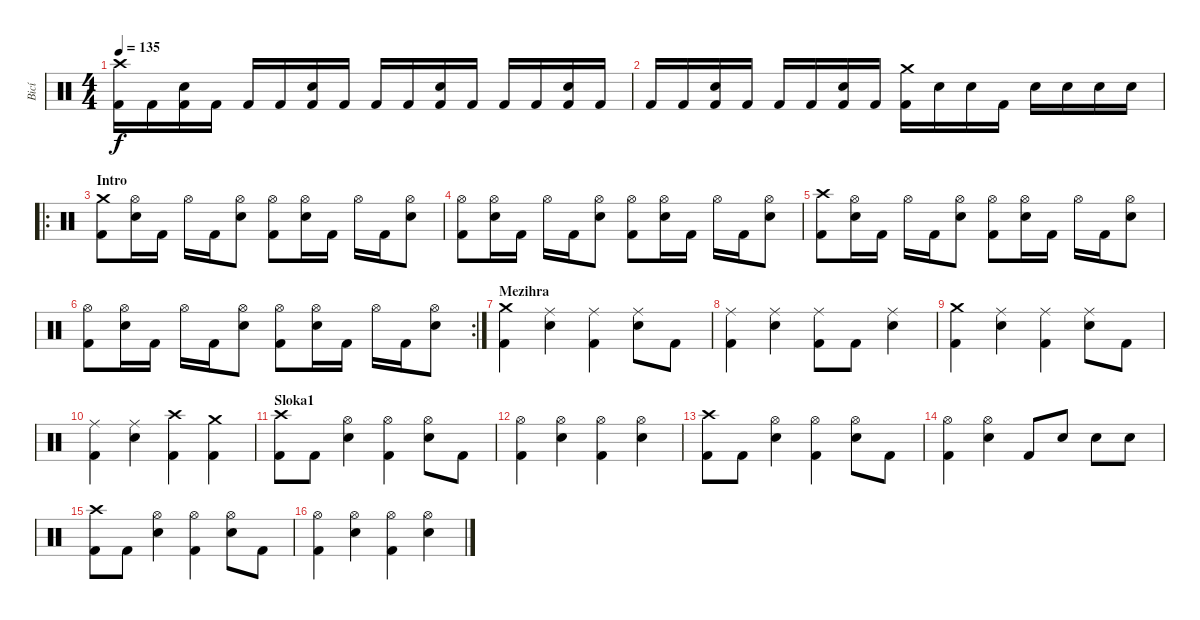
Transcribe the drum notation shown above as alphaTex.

\track ("Bicí" "Bicí") {instrument percussion}
\staff {score}
\articulation defaults
\ts (4 4)
\tempo 135
\clef neutral
\ks c
("Crash high (hit)" "Kick (hit) 2").16{dy f} "Kick (hit) 2".16 ("Snare (hit) 2" "Kick (hit) 2").16 "Kick (hit) 2".16 "Kick (hit) 2".16 "Kick (hit) 2".16 ("Snare (hit) 2" "Kick (hit) 2").16 "Kick (hit) 2".16 "Kick (hit) 2".16 "Kick (hit) 2".16 ("Snare (hit) 2" "Kick (hit) 2").16 "Kick (hit) 2".16 "Kick (hit) 2".16 "Kick (hit) 2".16 ("Snare (hit) 2" "Kick (hit) 2").16 "Kick (hit) 2".16 |
"Kick (hit) 2".16 "Kick (hit) 2".16 ("Snare (hit) 2" "Kick (hit) 2").16 "Kick (hit) 2".16 "Kick (hit) 2".16 "Kick (hit) 2".16 ("Snare (hit) 2" "Kick (hit) 2").16 "Kick (hit) 2".16 ("Crash medium (hit)" "Kick (hit) 2").16 "Snare (hit) 2".16 "Snare (hit) 2".16 "Kick (hit) 2".16 "Snare (hit) 2".16 "Snare (hit) 2".16 "Snare (hit) 2".16 "Snare (hit) 2".16 |
\ro
\section ("" "Intro")
("Crash medium (hit)" "Kick (hit) 2").8 ("Hi-Hat (open)" "Snare (hit) 2").16 "Kick (hit) 2".16 "Hi-Hat (open)".16 "Kick (hit) 2".16 ("Hi-Hat (open)" "Snare (hit) 2").8 ("Hi-Hat (open)" "Kick (hit) 2").8 ("Hi-Hat (open)" "Snare (hit) 2").16 "Kick (hit) 2".16 "Hi-Hat (open)".16 "Kick (hit) 2".16 ("Hi-Hat (open)" "Snare (hit) 2").8 |
("Hi-Hat (open)" "Kick (hit) 2").8 ("Hi-Hat (open)" "Snare (hit) 2").16 "Kick (hit) 2".16 "Hi-Hat (open)".16 "Kick (hit) 2".16 ("Hi-Hat (open)" "Snare (hit) 2").8 ("Hi-Hat (open)" "Kick (hit) 2").8 ("Hi-Hat (open)" "Snare (hit) 2").16 "Kick (hit) 2".16 "Hi-Hat (open)".16 "Kick (hit) 2".16 ("Hi-Hat (open)" "Snare (hit) 2").8 |
("Crash high (hit)" "Kick (hit) 2").8 ("Hi-Hat (open)" "Snare (hit) 2").16 "Kick (hit) 2".16 "Hi-Hat (open)".16 "Kick (hit) 2".16 ("Hi-Hat (open)" "Snare (hit) 2").8 ("Hi-Hat (open)" "Kick (hit) 2").8 ("Hi-Hat (open)" "Snare (hit) 2").16 "Kick (hit) 2".16 "Hi-Hat (open)".16 "Kick (hit) 2".16 ("Hi-Hat (open)" "Snare (hit) 2").8 |
\rc 2
("Hi-Hat (open)" "Kick (hit) 2").8 ("Hi-Hat (open)" "Snare (hit) 2").16 "Kick (hit) 2".16 "Hi-Hat (open)".16 "Kick (hit) 2".16 ("Hi-Hat (open)" "Snare (hit) 2").8 ("Hi-Hat (open)" "Kick (hit) 2").8 ("Hi-Hat (open)" "Snare (hit) 2").16 "Kick (hit) 2".16 "Hi-Hat (open)".16 "Kick (hit) 2".16 ("Hi-Hat (open)" "Snare (hit) 2").8 |
\section ("" "Mezihra")
("Crash medium (hit)" "Kick (hit) 2").4 ("Ride (middle)" "Snare (hit) 2").4 ("Ride (middle)" "Kick (hit) 2").4 ("Ride (middle)" "Snare (hit) 2").8 "Kick (hit) 2".8 |
("Ride (middle)" "Kick (hit) 2").4 ("Ride (middle)" "Snare (hit) 2").4 ("Ride (middle)" "Kick (hit) 2").8 "Kick (hit) 2".8 ("Ride (middle)" "Snare (hit) 2").4 |
("Crash medium (hit)" "Kick (hit) 2").4 ("Ride (middle)" "Snare (hit) 2").4 ("Ride (middle)" "Kick (hit) 2").4 ("Ride (middle)" "Snare (hit) 2").8 "Kick (hit) 2".8 |
("Ride (middle)" "Kick (hit) 2").4 ("Ride (middle)" "Snare (hit) 2").4 ("Crash high (hit)" "Kick (hit) 2").4 ("Crash medium (hit)" "Kick (hit) 2").4 |
\section ("" "Sloka1")
("Crash high (hit)" "Kick (hit) 2").8 "Kick (hit) 2".8 ("Hi-Hat (open)" "Snare (hit) 2").4 ("Hi-Hat (open)" "Kick (hit) 2").4 ("Hi-Hat (open)" "Snare (hit) 2").8 "Kick (hit) 2".8 |
("Hi-Hat (open)" "Kick (hit) 2").4 ("Hi-Hat (open)" "Snare (hit) 2").4 ("Hi-Hat (open)" "Kick (hit) 2").4 ("Hi-Hat (open)" "Snare (hit) 2").4 |
("Crash high (hit)" "Kick (hit) 2").8 "Kick (hit) 2".8 ("Hi-Hat (open)" "Snare (hit) 2").4 ("Hi-Hat (open)" "Kick (hit) 2").4 ("Hi-Hat (open)" "Snare (hit) 2").8 "Kick (hit) 2".8 |
("Hi-Hat (open)" "Kick (hit) 2").4 ("Hi-Hat (open)" "Snare (hit) 2").4 "Kick (hit) 2".8 "Snare (hit) 2".8 "Snare (hit) 2".8 "Snare (hit) 2".8 |
("Crash high (hit)" "Kick (hit) 2").8 "Kick (hit) 2".8 ("Hi-Hat (open)" "Snare (hit) 2").4 ("Hi-Hat (open)" "Kick (hit) 2").4 ("Hi-Hat (open)" "Snare (hit) 2").8 "Kick (hit) 2".8 |
("Hi-Hat (open)" "Kick (hit) 2").4 ("Hi-Hat (open)" "Snare (hit) 2").4 ("Hi-Hat (open)" "Kick (hit) 2").4 ("Hi-Hat (open)" "Snare (hit) 2").4
